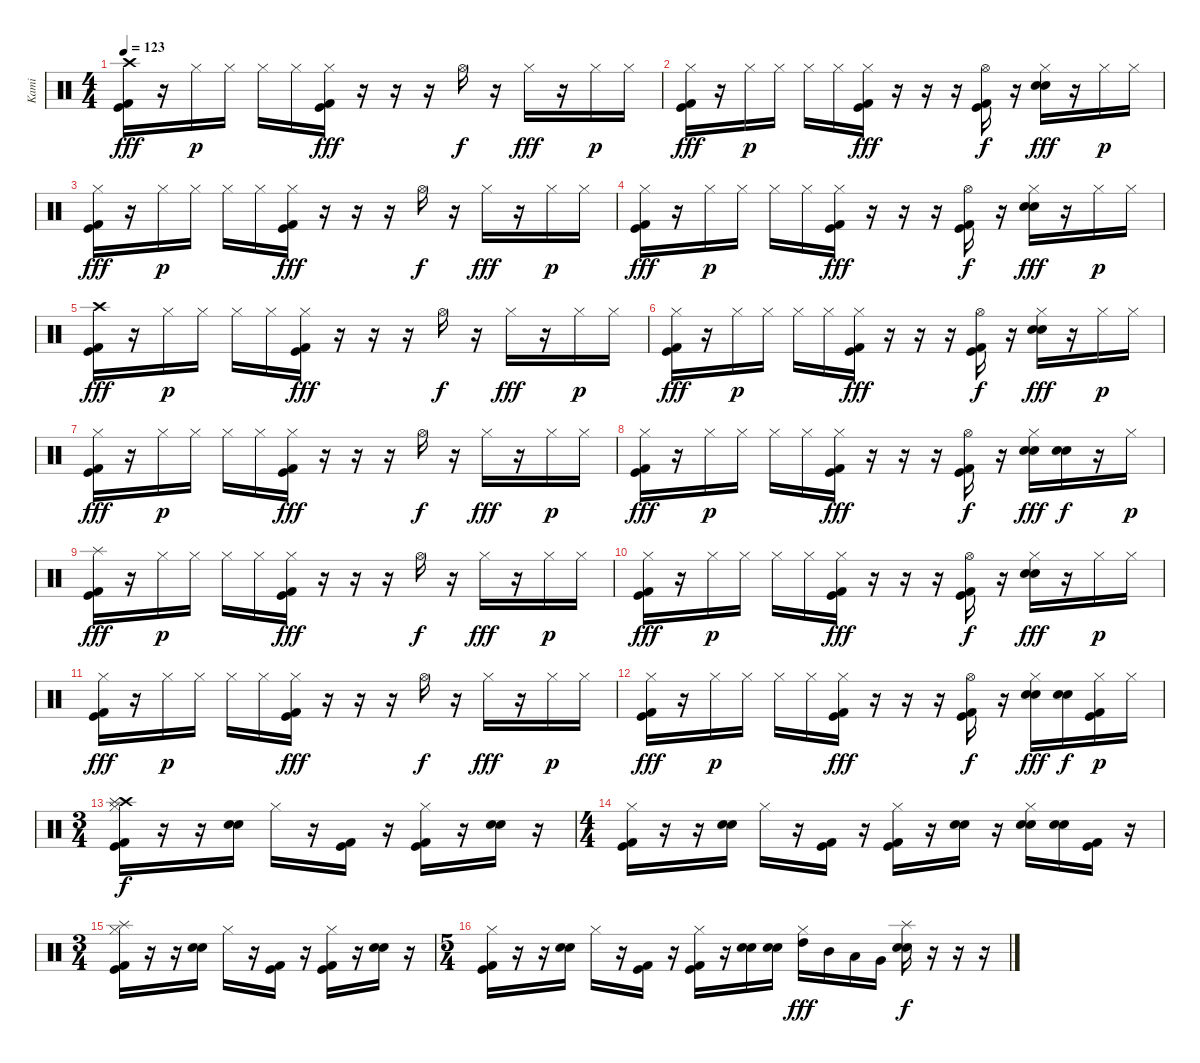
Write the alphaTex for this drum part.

\track ("Kami" "Kami") {instrument percussion}
\staff {score}
\articulation defaults
\ts (4 4)
\tempo 123
\clef neutral
\ks c
("Kick (hit) 2" "Kick (hit)" "Crash high (hit)").16{dy fff} r.16 "Hi-Hat (closed)".16{dy p} "Hi-Hat (closed)".16 "Hi-Hat (closed)".16 "Hi-Hat (closed)".16 ("Kick (hit) 2" "Kick (hit)" "Hi-Hat (closed)").16{dy fff} r.16 r.16 r.16 "Hi-Hat (open)".16{dy f} r.16 "Hi-Hat (closed)".16{dy fff} r.16 "Hi-Hat (closed)".16{dy p} "Hi-Hat (closed)".16 |
("Kick (hit) 2" "Kick (hit)" "Hi-Hat (closed)").16{dy fff} r.16 "Hi-Hat (closed)".16{dy p} "Hi-Hat (closed)".16 "Hi-Hat (closed)".16 "Hi-Hat (closed)".16 ("Kick (hit) 2" "Kick (hit)" "Hi-Hat (closed)").16{dy fff} r.16 r.16 r.16 ("Kick (hit) 2" "Kick (hit)" "Hi-Hat (open)").16{dy f} r.16 ("Snare (hit) 2" "Electric Snare (hit)" "Hi-Hat (closed)").16{dy fff} r.16 "Hi-Hat (closed)".16{dy p} "Hi-Hat (closed)".16 |
("Kick (hit) 2" "Kick (hit)" "Hi-Hat (closed)").16{dy fff} r.16 "Hi-Hat (closed)".16{dy p} "Hi-Hat (closed)".16 "Hi-Hat (closed)".16 "Hi-Hat (closed)".16 ("Kick (hit) 2" "Kick (hit)" "Hi-Hat (closed)").16{dy fff} r.16 r.16 r.16 "Hi-Hat (open)".16{dy f} r.16 "Hi-Hat (closed)".16{dy fff} r.16 "Hi-Hat (closed)".16{dy p} "Hi-Hat (closed)".16 |
("Kick (hit) 2" "Kick (hit)" "Hi-Hat (closed)").16{dy fff} r.16 "Hi-Hat (closed)".16{dy p} "Hi-Hat (closed)".16 "Hi-Hat (closed)".16 "Hi-Hat (closed)".16 ("Kick (hit) 2" "Kick (hit)" "Hi-Hat (closed)").16{dy fff} r.16 r.16 r.16 ("Kick (hit) 2" "Kick (hit)" "Hi-Hat (open)").16{dy f} r.16 ("Snare (hit) 2" "Electric Snare (hit)" "Hi-Hat (closed)").16{dy fff} r.16 "Hi-Hat (closed)".16{dy p} "Hi-Hat (closed)".16 |
("Kick (hit) 2" "Kick (hit)" "Crash high (hit)").16{dy fff} r.16 "Hi-Hat (closed)".16{dy p} "Hi-Hat (closed)".16 "Hi-Hat (closed)".16 "Hi-Hat (closed)".16 ("Kick (hit) 2" "Kick (hit)" "Hi-Hat (closed)").16{dy fff} r.16 r.16 r.16 "Hi-Hat (open)".16{dy f} r.16 "Hi-Hat (closed)".16{dy fff} r.16 "Hi-Hat (closed)".16{dy p} "Hi-Hat (closed)".16 |
("Kick (hit) 2" "Kick (hit)" "Hi-Hat (closed)").16{dy fff} r.16 "Hi-Hat (closed)".16{dy p} "Hi-Hat (closed)".16 "Hi-Hat (closed)".16 "Hi-Hat (closed)".16 ("Kick (hit) 2" "Kick (hit)" "Hi-Hat (closed)").16{dy fff} r.16 r.16 r.16 ("Kick (hit) 2" "Kick (hit)" "Hi-Hat (open)").16{dy f} r.16 ("Snare (hit) 2" "Electric Snare (hit)" "Hi-Hat (closed)").16{dy fff} r.16 "Hi-Hat (closed)".16{dy p} "Hi-Hat (closed)".16 |
("Kick (hit) 2" "Kick (hit)" "Hi-Hat (closed)").16{dy fff} r.16 "Hi-Hat (closed)".16{dy p} "Hi-Hat (closed)".16 "Hi-Hat (closed)".16 "Hi-Hat (closed)".16 ("Kick (hit) 2" "Kick (hit)" "Hi-Hat (closed)").16{dy fff} r.16 r.16 r.16 "Hi-Hat (open)".16{dy f} r.16 "Hi-Hat (closed)".16{dy fff} r.16 "Hi-Hat (closed)".16{dy p} "Hi-Hat (closed)".16 |
("Kick (hit) 2" "Kick (hit)" "Hi-Hat (closed)").16{dy fff} r.16 "Hi-Hat (closed)".16{dy p} "Hi-Hat (closed)".16 "Hi-Hat (closed)".16 "Hi-Hat (closed)".16 ("Kick (hit) 2" "Kick (hit)" "Hi-Hat (closed)").16{dy fff} r.16 r.16 r.16 ("Kick (hit) 2" "Kick (hit)" "Hi-Hat (open)").16{dy f} r.16 ("Snare (hit) 2" "Electric Snare (hit)" "Hi-Hat (closed)").16{dy fff} ("Snare (hit) 2" "Electric Snare (hit)").16{dy f} r.16 "Hi-Hat (closed)".16{dy p} |
("Kick (hit) 2" "Kick (hit)" "Splash (hit)").16{dy fff} r.16 "Hi-Hat (closed)".16{dy p} "Hi-Hat (closed)".16 "Hi-Hat (closed)".16 "Hi-Hat (closed)".16 ("Kick (hit) 2" "Kick (hit)" "Hi-Hat (closed)").16{dy fff} r.16 r.16 r.16 "Hi-Hat (open)".16{dy f} r.16 "Hi-Hat (closed)".16{dy fff} r.16 "Hi-Hat (closed)".16{dy p} "Hi-Hat (closed)".16 |
("Kick (hit) 2" "Kick (hit)" "Hi-Hat (closed)").16{dy fff} r.16 "Hi-Hat (closed)".16{dy p} "Hi-Hat (closed)".16 "Hi-Hat (closed)".16 "Hi-Hat (closed)".16 ("Kick (hit) 2" "Kick (hit)" "Hi-Hat (closed)").16{dy fff} r.16 r.16 r.16 ("Kick (hit) 2" "Kick (hit)" "Hi-Hat (open)").16{dy f} r.16 ("Snare (hit) 2" "Electric Snare (hit)" "Hi-Hat (closed)").16{dy fff} r.16 "Hi-Hat (closed)".16{dy p} "Hi-Hat (closed)".16 |
("Kick (hit) 2" "Kick (hit)" "Hi-Hat (closed)").16{dy fff} r.16 "Hi-Hat (closed)".16{dy p} "Hi-Hat (closed)".16 "Hi-Hat (closed)".16 "Hi-Hat (closed)".16 ("Kick (hit) 2" "Kick (hit)" "Hi-Hat (closed)").16{dy fff} r.16 r.16 r.16 "Hi-Hat (open)".16{dy f} r.16 "Hi-Hat (closed)".16{dy fff} r.16 "Hi-Hat (closed)".16{dy p} "Hi-Hat (closed)".16 |
("Kick (hit) 2" "Kick (hit)" "Hi-Hat (closed)").16{dy fff} r.16 "Hi-Hat (closed)".16{dy p} "Hi-Hat (closed)".16 "Hi-Hat (closed)".16 "Hi-Hat (closed)".16 ("Kick (hit) 2" "Kick (hit)" "Hi-Hat (closed)").16{dy fff} r.16 r.16 r.16 ("Kick (hit) 2" "Kick (hit)" "Hi-Hat (open)").16{dy f} r.16 ("Snare (hit) 2" "Electric Snare (hit)" "Hi-Hat (closed)").16{dy fff} ("Snare (hit) 2" "Electric Snare (hit)").16{dy f} ("Kick (hit)" "Kick (hit) 2" "Hi-Hat (closed)").16{dy p} "Hi-Hat (closed)".16 |
\ts (3 4)
("Kick (hit)" "Kick (hit) 2" "Crash high (hit)" "Hi-Hat (closed)" "Splash (hit)").16{dy f} r.16 r.16 ("Electric Snare (hit)" "Snare (hit) 2").16 "Hi-Hat (closed)".16 r.16 ("Kick (hit)" "Kick (hit) 2").16 r.16 ("Kick (hit)" "Kick (hit) 2" "Hi-Hat (closed)").16 r.16 ("Electric Snare (hit)" "Snare (hit) 2").16 r.16 |
\ts (4 4)
("Kick (hit)" "Kick (hit) 2" "Hi-Hat (closed)").16 r.16 r.16 ("Electric Snare (hit)" "Snare (hit) 2").16 "Hi-Hat (closed)".16 r.16 ("Kick (hit)" "Kick (hit) 2").16 r.16 ("Kick (hit)" "Kick (hit) 2" "Hi-Hat (closed)").16 r.16 ("Electric Snare (hit)" "Snare (hit) 2").16 r.16 ("Snare (hit) 2" "Electric Snare (hit)" "Hi-Hat (closed)").16 ("Snare (hit) 2" "Electric Snare (hit)").16 ("Kick (hit)" "Kick (hit) 2").16 r.16 |
\ts (3 4)
("Kick (hit)" "Kick (hit) 2" "Hi-Hat (closed)" "Splash (hit)").16 r.16 r.16 ("Electric Snare (hit)" "Snare (hit) 2").16 "Hi-Hat (closed)".16 r.16 ("Kick (hit)" "Kick (hit) 2").16 r.16 ("Kick (hit)" "Kick (hit) 2" "Hi-Hat (closed)").16 r.16 ("Electric Snare (hit)" "Snare (hit) 2").16 r.16 |
\ts (5 4)
("Kick (hit)" "Kick (hit) 2" "Hi-Hat (closed)").16 r.16 r.16 ("Electric Snare (hit)" "Snare (hit) 2").16 "Hi-Hat (closed)".16 r.16 ("Kick (hit)" "Kick (hit) 2").16 r.16 ("Kick (hit)" "Kick (hit) 2" "Hi-Hat (closed)").16 r.16 ("Electric Snare (hit)" "Snare (hit) 2").16 ("Electric Snare (hit)" "Snare (hit) 2").16 ("High Tom (hit)" "Hi-Hat (closed)").16{dy fff} "Mid Tom (hit)".16 "Low Tom (hit)".16 "Very Low Tom (hit)".16 ("Electric Snare (hit)" "Snare (hit) 2" "Splash (hit)").16{dy f} r.16 r.16 r.16
